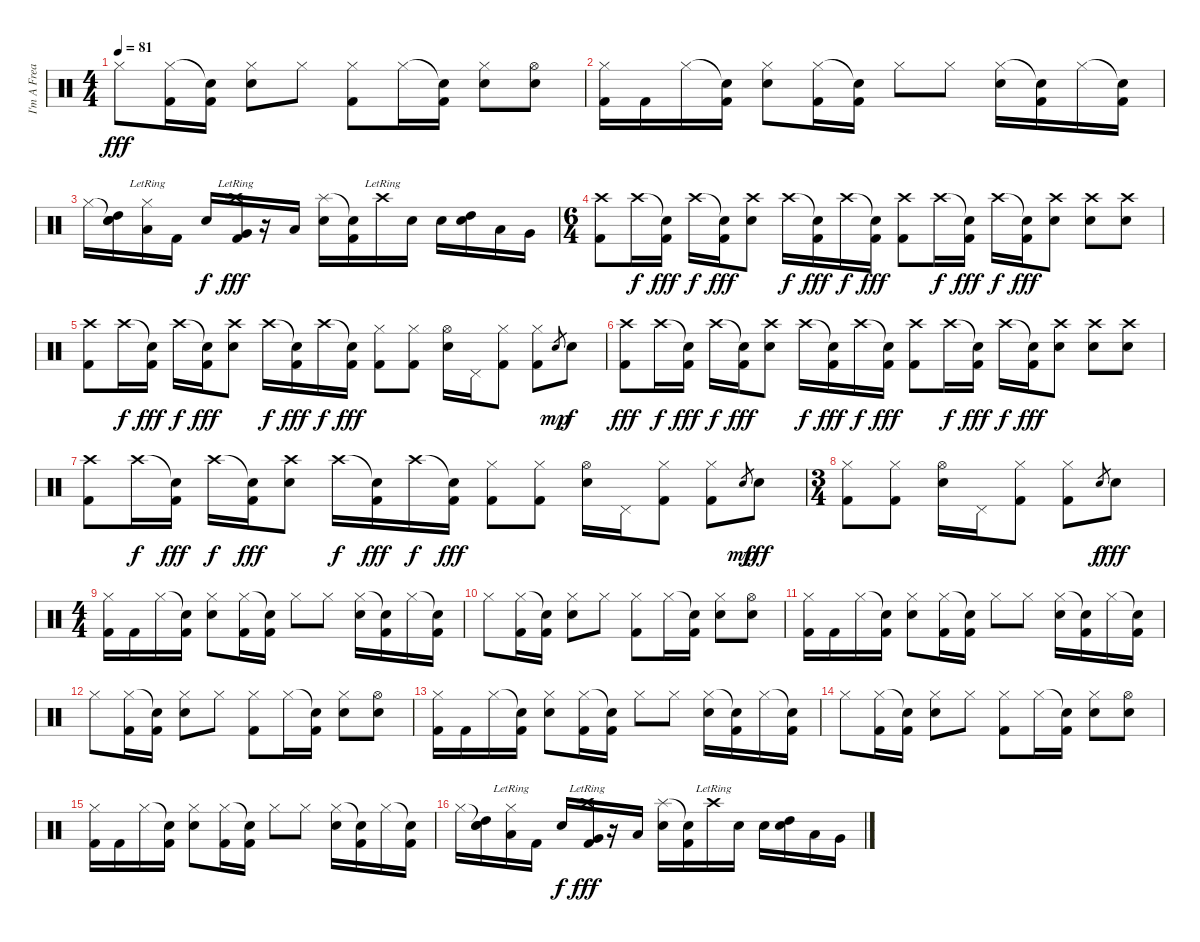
\track ("I'm A Freak" "I'm A Frea") {instrument percussion}
\staff {score}
\articulation defaults
\ts (4 4)
\tempo 81
\clef neutral
\ks c "Hi-Hat (closed)".8{dy fff}
("Hi-Hat (closed)" "Kick (hit) 2").16 ("Snare (hit)"{t} "Kick (hit) 2").16 ("Hi-Hat (closed)" "Snare (hit) 2").8 "Hi-Hat (closed)".8 ("Hi-Hat (closed)" "Kick (hit) 2").8 "Hi-Hat (closed)".16 ("Snare (hit)"{t} "Kick (hit) 2").16 ("Hi-Hat (closed)" "Snare (hit) 2").8 ("Hi-Hat (open)" "Snare (hit) 2").8 |
("Hi-Hat (closed)" "Kick (hit) 2").16 "Kick (hit) 2".16 "Hi-Hat (closed)".16 ("Snare (hit)"{t} "Kick (hit) 2").16 ("Hi-Hat (closed)" "Snare (hit) 2").8 ("Hi-Hat (closed)" "Kick (hit) 2").16 ("Snare (hit)"{t} "Kick (hit) 2").16 "Hi-Hat (closed)".8 "Hi-Hat (closed)".8 ("Hi-Hat (closed)" "Snare (hit) 2").16 ("Snare (hit)"{t} "Kick (hit) 2").16 "Hi-Hat (closed)".16 ("Snare (hit)"{t} "Kick (hit) 2").16 |
"Hi-Hat (closed)".16 ("Snare (hit)"{t} "Snare (hit) 2" "High Tom (hit)").16 ("Hi-Hat (closed)"{lr} "Low Tom (hit)").16 "Kick (hit) 2".16 "Snare (hit) 2".16{dy f} ("Crash high (hit)"{lr} "Very Low Tom (hit)" "Kick (hit) 2").16{dy fff} r.16 "Low Tom (hit)".16 ("Splash (hit)" "Snare (hit) 2").16 ("Snare (hit)"{t} "Kick (hit) 2").16 "Crash high (hit)"{lr}.16 "Snare (hit) 2".16 "Snare (hit) 2".16 ("Snare (hit) 2" "High Tom (hit)").16 "Low Tom (hit)".16 "Very Low Tom (hit)".16 |
\ts (6 4)
("Crash high (hit)" "Kick (hit) 2").8 "Crash high (hit)".16{dy f} ("Snare (hit)"{t} "Kick (hit) 2").16{dy fff} "Crash high (hit)".16{dy f} ("Snare (hit)"{t} "Kick (hit) 2").16{dy fff} ("Crash high (hit)" "Snare (hit) 2").8 "Crash high (hit)".16{dy f} ("Snare (hit)"{t} "Kick (hit) 2").16{dy fff} "Crash high (hit)".16{dy f} ("Snare (hit)"{t} "Kick (hit) 2").16{dy fff} ("Crash high (hit)" "Kick (hit) 2").8 "Crash high (hit)".16{dy f} ("Snare (hit)"{t} "Kick (hit) 2").16{dy fff} "Crash high (hit)".16{dy f} ("Snare (hit)"{t} "Kick (hit) 2").16{dy fff} ("Crash high (hit)" "Snare (hit) 2").8 ("Crash high (hit)" "Snare (hit) 2").8 ("Crash high (hit)" "Snare (hit) 2").8 |
("Crash high (hit)" "Kick (hit) 2").8 "Crash high (hit)".16{dy f} ("Snare (hit)"{t} "Kick (hit) 2").16{dy fff} "Crash high (hit)".16{dy f} ("Snare (hit)"{t} "Kick (hit) 2").16{dy fff} ("Crash high (hit)" "Snare (hit) 2").8 "Crash high (hit)".16{dy f} ("Snare (hit)"{t} "Kick (hit) 2").16{dy fff} "Crash high (hit)".16{dy f} ("Snare (hit)"{t} "Kick (hit) 2").16{dy fff} ("Hi-Hat (closed)" "Kick (hit) 2").8 ("Hi-Hat (closed)" "Kick (hit) 2").8 ("Hi-Hat (open)" "Snare (hit) 2").16 "Pedal Hi-Hat (hit)".16 ("Hi-Hat (closed)" "Kick (hit) 2").8 ("Hi-Hat (closed)" "Kick (hit) 2").8 "Snare (hit) 2".8{gr dy mp} "Snare (hit) 2".8{dy f} |
("Crash high (hit)" "Kick (hit) 2").8{dy fff} "Crash high (hit)".16{dy f} ("Snare (hit)"{t} "Kick (hit) 2").16{dy fff} "Crash high (hit)".16{dy f} ("Snare (hit)"{t} "Kick (hit) 2").16{dy fff} ("Crash high (hit)" "Snare (hit) 2").8 "Crash high (hit)".16{dy f} ("Snare (hit)"{t} "Kick (hit) 2").16{dy fff} "Crash high (hit)".16{dy f} ("Snare (hit)"{t} "Kick (hit) 2").16{dy fff} ("Crash high (hit)" "Kick (hit) 2").8 "Crash high (hit)".16{dy f} ("Snare (hit)"{t} "Kick (hit) 2").16{dy fff} "Crash high (hit)".16{dy f} ("Snare (hit)"{t} "Kick (hit) 2").16{dy fff} ("Crash high (hit)" "Snare (hit) 2").8 ("Crash high (hit)" "Snare (hit) 2").8 ("Crash high (hit)" "Snare (hit) 2").8 |
("Crash high (hit)" "Kick (hit) 2").8 "Crash high (hit)".16{dy f} ("Snare (hit)"{t} "Kick (hit) 2").16{dy fff} "Crash high (hit)".16{dy f} ("Snare (hit)"{t} "Kick (hit) 2").16{dy fff} ("Crash high (hit)" "Snare (hit) 2").8 "Crash high (hit)".16{dy f} ("Snare (hit)"{t} "Kick (hit) 2").16{dy fff} "Crash high (hit)".16{dy f} ("Snare (hit)"{t} "Kick (hit) 2").16{dy fff} ("Hi-Hat (closed)" "Kick (hit) 2").8 ("Hi-Hat (closed)" "Kick (hit) 2").8 ("Hi-Hat (open)" "Snare (hit) 2").16 "Pedal Hi-Hat (hit)".16 ("Hi-Hat (closed)" "Kick (hit) 2").8 ("Hi-Hat (closed)" "Kick (hit) 2").8 "Snare (hit) 2".8{gr dy mp} "Snare (hit) 2".8{dy fff} |
\ts (3 4)
("Hi-Hat (closed)" "Kick (hit) 2").8 ("Hi-Hat (closed)" "Kick (hit) 2").8 ("Hi-Hat (open)" "Snare (hit) 2").16 "Pedal Hi-Hat (hit)".16 ("Hi-Hat (closed)" "Kick (hit) 2").8 ("Hi-Hat (closed)" "Kick (hit) 2").8 "Snare (hit) 2".8{gr dy f} "Snare (hit) 2".8{dy fff} |
\ts (4 4)
("Hi-Hat (closed)" "Kick (hit) 2").16 "Kick (hit) 2".16 "Hi-Hat (closed)".16 ("Snare (hit)"{t} "Kick (hit) 2").16 ("Hi-Hat (closed)" "Snare (hit) 2").8 ("Hi-Hat (closed)" "Kick (hit) 2").16 ("Snare (hit)"{t} "Kick (hit) 2").16 "Hi-Hat (closed)".8 "Hi-Hat (closed)".8 ("Hi-Hat (closed)" "Snare (hit) 2").16 ("Snare (hit)"{t} "Kick (hit) 2").16 "Hi-Hat (closed)".16 ("Snare (hit)"{t} "Kick (hit) 2").16 |
"Hi-Hat (closed)".8 ("Hi-Hat (closed)" "Kick (hit) 2").16 ("Snare (hit)"{t} "Kick (hit) 2").16 ("Hi-Hat (closed)" "Snare (hit) 2").8 "Hi-Hat (closed)".8 ("Hi-Hat (closed)" "Kick (hit) 2").8 "Hi-Hat (closed)".16 ("Snare (hit)"{t} "Kick (hit) 2").16 ("Hi-Hat (closed)" "Snare (hit) 2").8 ("Hi-Hat (open)" "Snare (hit) 2").8 |
("Hi-Hat (closed)" "Kick (hit) 2").16 "Kick (hit) 2".16 "Hi-Hat (closed)".16 ("Snare (hit)"{t} "Kick (hit) 2").16 ("Hi-Hat (closed)" "Snare (hit) 2").8 ("Hi-Hat (closed)" "Kick (hit) 2").16 ("Snare (hit)"{t} "Kick (hit) 2").16 "Hi-Hat (closed)".8 "Hi-Hat (closed)".8 ("Hi-Hat (closed)" "Snare (hit) 2").16 ("Snare (hit)"{t} "Kick (hit) 2").16 "Hi-Hat (closed)".16 ("Snare (hit)"{t} "Kick (hit) 2").16 |
"Hi-Hat (closed)".8 ("Hi-Hat (closed)" "Kick (hit) 2").16 ("Snare (hit)"{t} "Kick (hit) 2").16 ("Hi-Hat (closed)" "Snare (hit) 2").8 "Hi-Hat (closed)".8 ("Hi-Hat (closed)" "Kick (hit) 2").8 "Hi-Hat (closed)".16 ("Snare (hit)"{t} "Kick (hit) 2").16 ("Hi-Hat (closed)" "Snare (hit) 2").8 ("Hi-Hat (open)" "Snare (hit) 2").8 |
("Hi-Hat (closed)" "Kick (hit) 2").16 "Kick (hit) 2".16 "Hi-Hat (closed)".16 ("Snare (hit)"{t} "Kick (hit) 2").16 ("Hi-Hat (closed)" "Snare (hit) 2").8 ("Hi-Hat (closed)" "Kick (hit) 2").16 ("Snare (hit)"{t} "Kick (hit) 2").16 "Hi-Hat (closed)".8 "Hi-Hat (closed)".8 ("Hi-Hat (closed)" "Snare (hit) 2").16 ("Snare (hit)"{t} "Kick (hit) 2").16 "Hi-Hat (closed)".16 ("Snare (hit)"{t} "Kick (hit) 2").16 |
"Hi-Hat (closed)".8 ("Hi-Hat (closed)" "Kick (hit) 2").16 ("Snare (hit)"{t} "Kick (hit) 2").16 ("Hi-Hat (closed)" "Snare (hit) 2").8 "Hi-Hat (closed)".8 ("Hi-Hat (closed)" "Kick (hit) 2").8 "Hi-Hat (closed)".16 ("Snare (hit)"{t} "Kick (hit) 2").16 ("Hi-Hat (closed)" "Snare (hit) 2").8 ("Hi-Hat (open)" "Snare (hit) 2").8 |
("Hi-Hat (closed)" "Kick (hit) 2").16 "Kick (hit) 2".16 "Hi-Hat (closed)".16 ("Snare (hit)"{t} "Kick (hit) 2").16 ("Hi-Hat (closed)" "Snare (hit) 2").8 ("Hi-Hat (closed)" "Kick (hit) 2").16 ("Snare (hit)"{t} "Kick (hit) 2").16 "Hi-Hat (closed)".8 "Hi-Hat (closed)".8 ("Hi-Hat (closed)" "Snare (hit) 2").16 ("Snare (hit)"{t} "Kick (hit) 2").16 "Hi-Hat (closed)".16 ("Snare (hit)"{t} "Kick (hit) 2").16 |
"Hi-Hat (closed)".16 ("Snare (hit)"{t} "Snare (hit) 2" "High Tom (hit)").16 ("Hi-Hat (closed)"{lr} "Low Tom (hit)").16 "Kick (hit) 2".16 "Snare (hit) 2".16{dy f} ("Crash high (hit)"{lr} "Very Low Tom (hit)" "Kick (hit) 2").16{dy fff} r.16 "Low Tom (hit)".16 ("Splash (hit)" "Snare (hit) 2").16 ("Snare (hit)"{t} "Kick (hit) 2").16 "Crash high (hit)"{lr}.16 "Snare (hit) 2".16 "Snare (hit) 2".16 ("Snare (hit) 2" "High Tom (hit)").16 "Low Tom (hit)".16 "Very Low Tom (hit)".16
